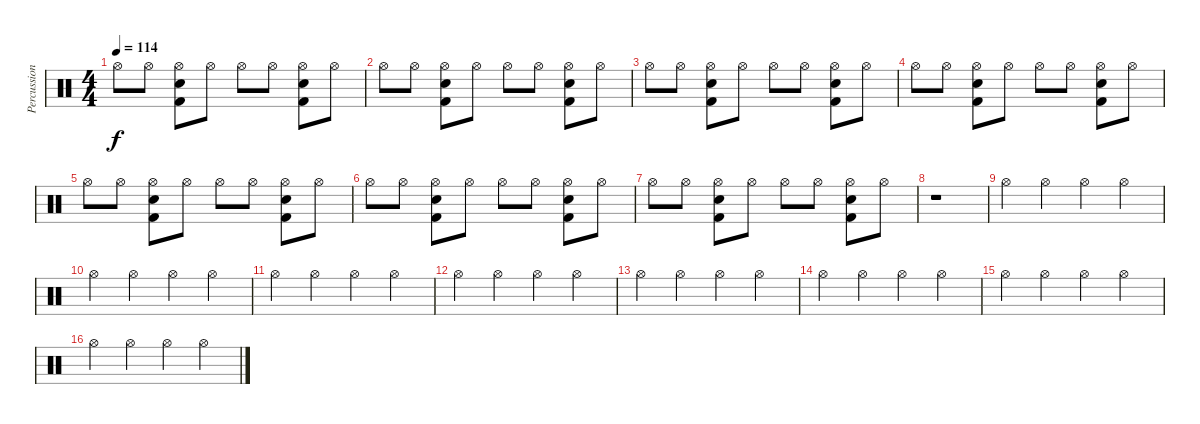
\track ("Percussion" "Percussion") {instrument percussion}
\staff {score}
\articulation defaults
\ts (4 4)
\tempo 114
\clef neutral
\ks c "Hi-Hat (open)".8{dy f} "Hi-Hat (open)".8
("Hi-Hat (open)" "Snare (hit) 2" "Kick (hit) 2").8 "Hi-Hat (open)".8 "Hi-Hat (open)".8 "Hi-Hat (open)".8 ("Hi-Hat (open)" "Snare (hit) 2" "Kick (hit) 2").8 "Hi-Hat (open)".8 |
"Hi-Hat (open)".8 "Hi-Hat (open)".8 ("Hi-Hat (open)" "Snare (hit) 2" "Kick (hit) 2").8 "Hi-Hat (open)".8 "Hi-Hat (open)".8 "Hi-Hat (open)".8 ("Hi-Hat (open)" "Snare (hit) 2" "Kick (hit) 2").8 "Hi-Hat (open)".8 |
"Hi-Hat (open)".8 "Hi-Hat (open)".8 ("Hi-Hat (open)" "Snare (hit) 2" "Kick (hit) 2").8 "Hi-Hat (open)".8 "Hi-Hat (open)".8 "Hi-Hat (open)".8 ("Hi-Hat (open)" "Snare (hit) 2" "Kick (hit) 2").8 "Hi-Hat (open)".8 |
"Hi-Hat (open)".8 "Hi-Hat (open)".8 ("Hi-Hat (open)" "Snare (hit) 2" "Kick (hit) 2").8 "Hi-Hat (open)".8 "Hi-Hat (open)".8 "Hi-Hat (open)".8 ("Hi-Hat (open)" "Snare (hit) 2" "Kick (hit) 2").8 "Hi-Hat (open)".8 |
"Hi-Hat (open)".8 "Hi-Hat (open)".8 ("Hi-Hat (open)" "Snare (hit) 2" "Kick (hit) 2").8 "Hi-Hat (open)".8 "Hi-Hat (open)".8 "Hi-Hat (open)".8 ("Hi-Hat (open)" "Snare (hit) 2" "Kick (hit) 2").8 "Hi-Hat (open)".8 |
"Hi-Hat (open)".8 "Hi-Hat (open)".8 ("Hi-Hat (open)" "Snare (hit) 2" "Kick (hit) 2").8 "Hi-Hat (open)".8 "Hi-Hat (open)".8 "Hi-Hat (open)".8 ("Hi-Hat (open)" "Snare (hit) 2" "Kick (hit) 2").8 "Hi-Hat (open)".8 |
"Hi-Hat (open)".8 "Hi-Hat (open)".8 ("Hi-Hat (open)" "Snare (hit) 2" "Kick (hit) 2").8 "Hi-Hat (open)".8 "Hi-Hat (open)".8 "Hi-Hat (open)".8 ("Hi-Hat (open)" "Snare (hit) 2" "Kick (hit) 2").8 "Hi-Hat (open)".8 |
r.1 |
"Hi-Hat (open)".4 "Hi-Hat (open)".4 "Hi-Hat (open)".4 "Hi-Hat (open)".4 |
"Hi-Hat (open)".4 "Hi-Hat (open)".4 "Hi-Hat (open)".4 "Hi-Hat (open)".4 |
"Hi-Hat (open)".4 "Hi-Hat (open)".4 "Hi-Hat (open)".4 "Hi-Hat (open)".4 |
"Hi-Hat (open)".4 "Hi-Hat (open)".4 "Hi-Hat (open)".4 "Hi-Hat (open)".4 |
"Hi-Hat (open)".4 "Hi-Hat (open)".4 "Hi-Hat (open)".4 "Hi-Hat (open)".4 |
"Hi-Hat (open)".4 "Hi-Hat (open)".4 "Hi-Hat (open)".4 "Hi-Hat (open)".4 |
"Hi-Hat (open)".4 "Hi-Hat (open)".4 "Hi-Hat (open)".4 "Hi-Hat (open)".4 |
"Hi-Hat (open)".4 "Hi-Hat (open)".4 "Hi-Hat (open)".4 "Hi-Hat (open)".4
